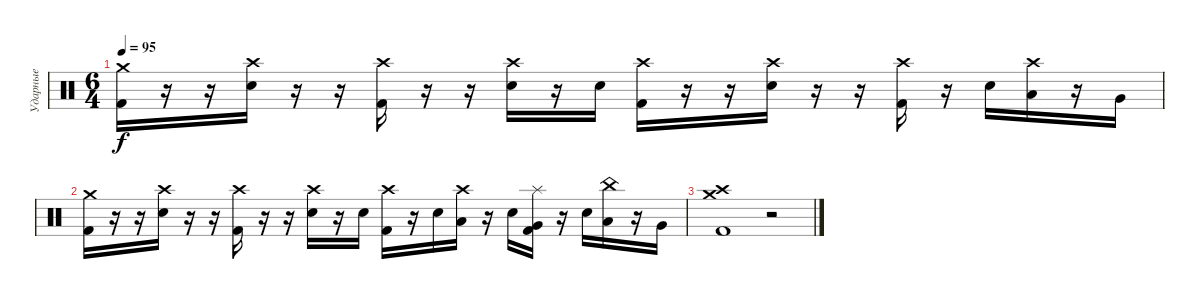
\track ("Ударные" "Ударные") {instrument percussion}
\staff {score}
\articulation defaults
\ts (6 4)
\tempo 95
\clef neutral
\ks c
("Crash medium (hit)" "Kick (hit) 2").16{dy f} r.16 r.16 ("Crash high (hit)" "Electric Snare (hit)").16 r.16 r.16 ("Crash high (hit)" "Kick (hit) 2").16 r.16 r.16 ("Crash high (hit)" "Electric Snare (hit)").16 r.16 "Electric Snare (hit)".16 ("Crash high (hit)" "Kick (hit) 2").16 r.16 r.16 ("Crash high (hit)" "Electric Snare (hit)").16 r.16 r.16 ("Crash high (hit)" "Kick (hit) 2").16 r.16 "Electric Snare (hit)".16 ("Crash high (hit)" "Low Floor Tom (hit)").16 r.16 "Very Low Tom (hit)".16 |
("Crash medium (hit)" "Kick (hit) 2").16 r.16 r.16 ("Crash high (hit)" "Electric Snare (hit)").16 r.16 r.16 ("Crash high (hit)" "Kick (hit) 2").16 r.16 r.16 ("Crash high (hit)" "Electric Snare (hit)").16 r.16 "Electric Snare (hit)".16 ("Crash high (hit)" "Kick (hit) 2").16 r.16 "Electric Snare (hit)".16 ("Crash high (hit)" "Low Floor Tom (hit)").16 r.16 "Electric Snare (hit)".16 ("Splash (hit)" "Very Low Tom (hit)" "Kick (hit) 2").16 r.16 "Electric Snare (hit)".16 ("China (hit)" "Low Floor Tom (hit)").16 r.16 "Very Low Tom (hit)".16 |
("Crash high (hit)" "Crash medium (hit)" "Kick (hit) 2").1 r.2
